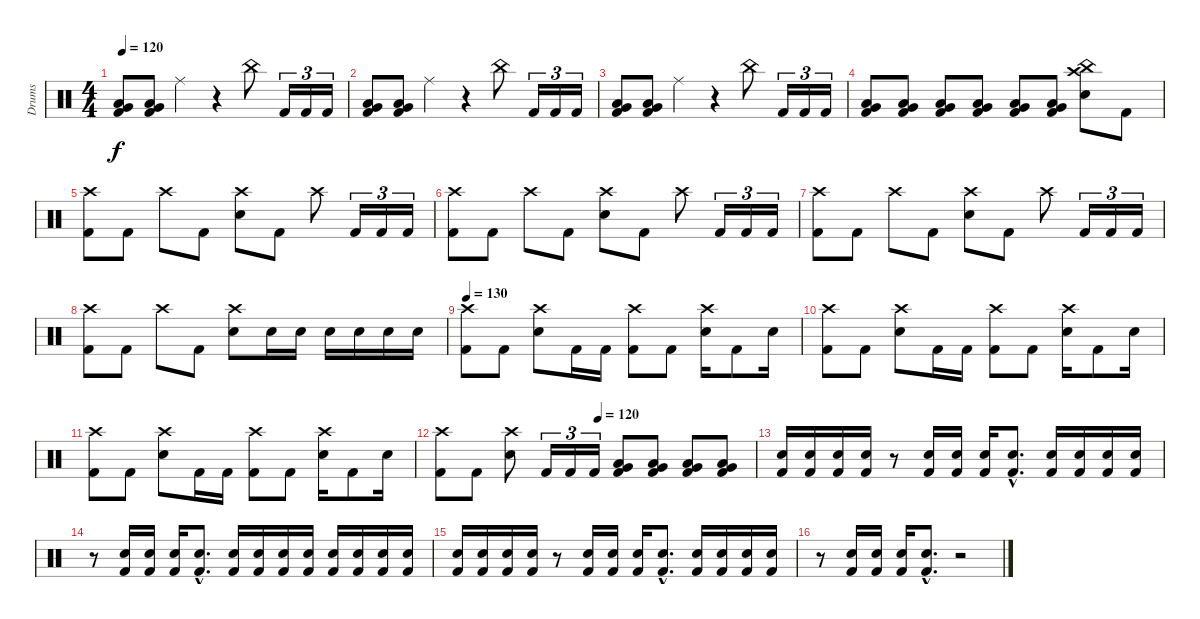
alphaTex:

\track ("Drums" "Drums") {instrument percussion}
\staff {score}
\articulation defaults
\ts (4 4)
\tempo 120
\clef neutral
\ks c
("Very Low Tom (hit)" "Low Floor Tom (hit)" "Kick (hit) 2").8{dy f} ("Very Low Tom (hit)" "Low Floor Tom (hit)" "Kick (hit) 2").8 "Ride (middle)".4 r.4 "China (hit)".8 "Kick (hit) 2".16{tu (3 2)} "Kick (hit) 2".16{tu (3 2)} "Kick (hit) 2".16{tu (3 2)} |
("Very Low Tom (hit)" "Low Floor Tom (hit)" "Kick (hit) 2").8 ("Very Low Tom (hit)" "Low Floor Tom (hit)" "Kick (hit) 2").8 "Ride (middle)".4 r.4 "China (hit)".8 "Kick (hit) 2".16{tu (3 2)} "Kick (hit) 2".16{tu (3 2)} "Kick (hit) 2".16{tu (3 2)} |
("Very Low Tom (hit)" "Low Floor Tom (hit)" "Kick (hit) 2").8 ("Very Low Tom (hit)" "Low Floor Tom (hit)" "Kick (hit) 2").8 "Ride (middle)".4 r.4 "China (hit)".8 "Kick (hit) 2".16{tu (3 2)} "Kick (hit) 2".16{tu (3 2)} "Kick (hit) 2".16{tu (3 2)} |
("Very Low Tom (hit)" "Low Floor Tom (hit)" "Kick (hit) 2").8 ("Very Low Tom (hit)" "Low Floor Tom (hit)" "Kick (hit) 2").8 ("Very Low Tom (hit)" "Low Floor Tom (hit)" "Kick (hit) 2").8 ("Very Low Tom (hit)" "Low Floor Tom (hit)" "Kick (hit) 2").8 ("Very Low Tom (hit)" "Low Floor Tom (hit)" "Kick (hit) 2").8 ("Very Low Tom (hit)" "Low Floor Tom (hit)" "Kick (hit) 2").8 ("Crash high (hit)" "China (hit)" "Snare (hit) 2").8 "Kick (hit) 2".8 |
("Crash high (hit)" "Kick (hit) 2").8 "Kick (hit) 2".8 "Crash high (hit)".8 "Kick (hit) 2".8 ("Crash high (hit)" "Snare (hit) 2").8 "Kick (hit) 2".8 "Crash high (hit)".8 "Kick (hit) 2".16{tu (3 2)} "Kick (hit) 2".16{tu (3 2)} "Kick (hit) 2".16{tu (3 2)} |
("Crash high (hit)" "Kick (hit) 2").8 "Kick (hit) 2".8 "Crash high (hit)".8 "Kick (hit) 2".8 ("Crash high (hit)" "Snare (hit) 2").8 "Kick (hit) 2".8 "Crash high (hit)".8 "Kick (hit) 2".16{tu (3 2)} "Kick (hit) 2".16{tu (3 2)} "Kick (hit) 2".16{tu (3 2)} |
("Crash high (hit)" "Kick (hit) 2").8 "Kick (hit) 2".8 "Crash high (hit)".8 "Kick (hit) 2".8 ("Crash high (hit)" "Snare (hit) 2").8 "Kick (hit) 2".8 "Crash high (hit)".8 "Kick (hit) 2".16{tu (3 2)} "Kick (hit) 2".16{tu (3 2)} "Kick (hit) 2".16{tu (3 2)} |
("Crash high (hit)" "Kick (hit) 2").8 "Kick (hit) 2".8 "Crash high (hit)".8 "Kick (hit) 2".8 ("Crash high (hit)" "Snare (hit) 2").8 "Snare (hit) 2".16 "Snare (hit) 2".16 "Snare (hit) 2".16 "Snare (hit) 2".16 "Snare (hit) 2".16 "Snare (hit) 2".16 |
\tempo 130
("Crash high (hit)" "Kick (hit) 2").8 "Kick (hit) 2".8 ("Crash high (hit)" "Snare (hit) 2").8 "Kick (hit) 2".16 "Kick (hit) 2".16 ("Crash high (hit)" "Kick (hit) 2").8 "Kick (hit) 2".8 ("Crash high (hit)" "Snare (hit) 2").16 "Kick (hit) 2".8 "Snare (hit) 2".16 |
("Crash high (hit)" "Kick (hit) 2").8 "Kick (hit) 2".8 ("Crash high (hit)" "Snare (hit) 2").8 "Kick (hit) 2".16 "Kick (hit) 2".16 ("Crash high (hit)" "Kick (hit) 2").8 "Kick (hit) 2".8 ("Crash high (hit)" "Snare (hit) 2").16 "Kick (hit) 2".8 "Snare (hit) 2".16 |
("Crash high (hit)" "Kick (hit) 2").8 "Kick (hit) 2".8 ("Crash high (hit)" "Snare (hit) 2").8 "Kick (hit) 2".16 "Kick (hit) 2".16 ("Crash high (hit)" "Kick (hit) 2").8 "Kick (hit) 2".8 ("Crash high (hit)" "Snare (hit) 2").16 "Kick (hit) 2".8 "Snare (hit) 2".16 |
\tempo (120 0.5)
("Crash high (hit)" "Kick (hit) 2").8 "Kick (hit) 2".8 ("Crash high (hit)" "Snare (hit) 2").8 "Kick (hit) 2".16{tu (3 2)} "Kick (hit) 2".16{tu (3 2)} "Kick (hit) 2".16{tu (3 2)} ("Very Low Tom (hit)" "Low Floor Tom (hit)" "Kick (hit) 2").8 ("Very Low Tom (hit)" "Low Floor Tom (hit)" "Kick (hit) 2").8 ("Very Low Tom (hit)" "Low Floor Tom (hit)" "Kick (hit) 2").8 ("Very Low Tom (hit)" "Low Floor Tom (hit)" "Kick (hit) 2").8 |
("Kick (hit) 2" "Snare (hit) 2").16 ("Kick (hit) 2" "Snare (hit) 2").16 ("Kick (hit) 2" "Snare (hit) 2").16 ("Kick (hit) 2" "Snare (hit) 2").16 r.8 ("Kick (hit) 2" "Snare (hit) 2").16 ("Kick (hit) 2" "Snare (hit) 2").16 ("Kick (hit) 2" "Snare (hit) 2").16 ("Kick (hit) 2"{hac} "Snare (hit) 2"{hac}).8{d} ("Kick (hit) 2" "Snare (hit) 2").16 ("Kick (hit) 2" "Snare (hit) 2").16 ("Kick (hit) 2" "Snare (hit) 2").16 ("Kick (hit) 2" "Snare (hit) 2").16 |
r.8 ("Kick (hit) 2" "Snare (hit) 2").16 ("Kick (hit) 2" "Snare (hit) 2").16 ("Kick (hit) 2" "Snare (hit) 2").16 ("Kick (hit) 2"{hac} "Snare (hit) 2"{hac}).8{d} ("Kick (hit) 2" "Snare (hit) 2").16 ("Kick (hit) 2" "Snare (hit) 2").16 ("Kick (hit) 2" "Snare (hit) 2").16 ("Kick (hit) 2" "Snare (hit) 2").16 ("Kick (hit) 2" "Snare (hit) 2").16 ("Kick (hit) 2" "Snare (hit) 2").16 ("Kick (hit) 2" "Snare (hit) 2").16 ("Kick (hit) 2" "Snare (hit) 2").16 |
("Kick (hit) 2" "Snare (hit) 2").16 ("Kick (hit) 2" "Snare (hit) 2").16 ("Kick (hit) 2" "Snare (hit) 2").16 ("Kick (hit) 2" "Snare (hit) 2").16 r.8 ("Kick (hit) 2" "Snare (hit) 2").16 ("Kick (hit) 2" "Snare (hit) 2").16 ("Kick (hit) 2" "Snare (hit) 2").16 ("Kick (hit) 2"{hac} "Snare (hit) 2"{hac}).8{d} ("Kick (hit) 2" "Snare (hit) 2").16 ("Kick (hit) 2" "Snare (hit) 2").16 ("Kick (hit) 2" "Snare (hit) 2").16 ("Kick (hit) 2" "Snare (hit) 2").16 |
r.8 ("Kick (hit) 2" "Snare (hit) 2").16 ("Kick (hit) 2" "Snare (hit) 2").16 ("Kick (hit) 2" "Snare (hit) 2").16 ("Kick (hit) 2"{hac} "Snare (hit) 2"{hac}).8{d} r.2
